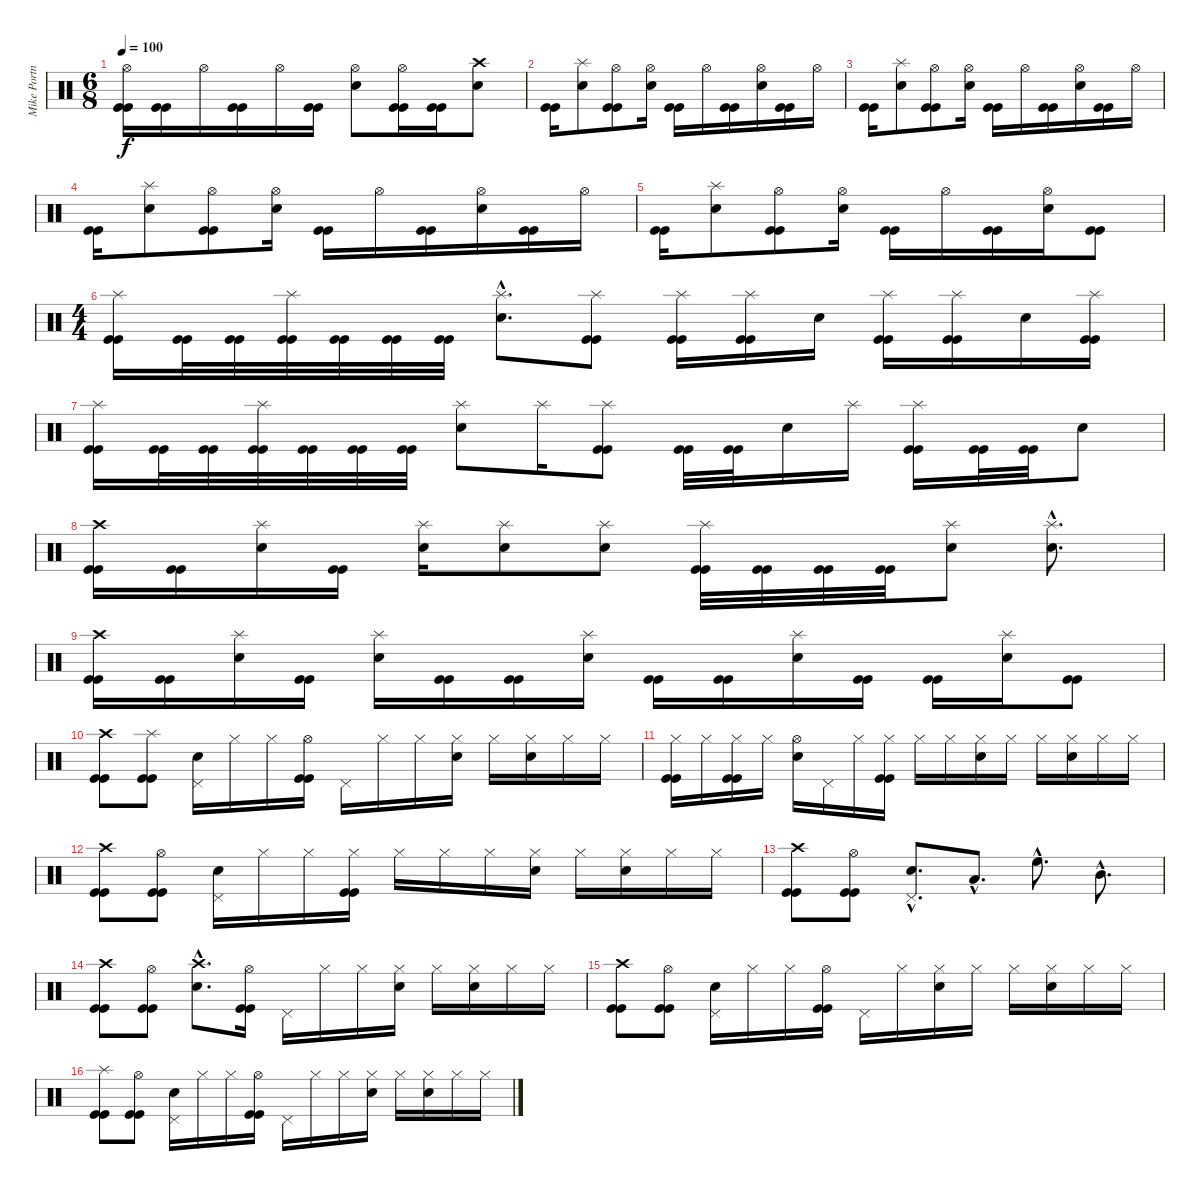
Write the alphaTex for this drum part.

\track ("Mike Portnoy - Drum" "Mike Portn") {instrument percussion}
\staff {score}
\articulation defaults
\ts (6 8)
\tempo 100
\clef neutral
\ks c
("Hi-Hat (open)" "Kick (hit)" "Kick (hit)").16{dy f} ("Kick (hit)" "Kick (hit)").16 "Hi-Hat (open)".16 ("Kick (hit)" "Kick (hit)").16 "Hi-Hat (open)".16 ("Kick (hit)" "Kick (hit)").16 ("Hi-Hat (open)" "Snare (hit) 2").8 ("Hi-Hat (open)" "Kick (hit)" "Kick (hit)").16 ("Kick (hit)" "Kick (hit)").16 ("Crash high (hit)" "Snare (hit) 2").8 |
("Kick (hit)" "Kick (hit)").16 ("Splash (hit)" "Snare (hit) 2").8 ("Hi-Hat (open)" "Kick (hit)" "Kick (hit)").8 ("Hi-Hat (open)" "Snare (hit) 2").16 ("Kick (hit)" "Kick (hit)").16 "Hi-Hat (open)".16 ("Kick (hit)" "Kick (hit)").16 ("Hi-Hat (open)" "Snare (hit) 2").16 ("Kick (hit)" "Kick (hit)").16 "Hi-Hat (open)".16 |
("Kick (hit)" "Kick (hit)").16 ("Splash (hit)" "Snare (hit) 2").8 ("Hi-Hat (open)" "Kick (hit)" "Kick (hit)").8 ("Hi-Hat (open)" "Snare (hit) 2").16 ("Kick (hit)" "Kick (hit)").16 "Hi-Hat (open)".16 ("Kick (hit)" "Kick (hit)").16 ("Hi-Hat (open)" "Snare (hit) 2").16 ("Kick (hit)" "Kick (hit)").16 "Hi-Hat (open)".16 |
("Kick (hit)" "Kick (hit)").16 ("Splash (hit)" "Snare (hit) 2").8 ("Hi-Hat (open)" "Kick (hit)" "Kick (hit)").8 ("Hi-Hat (open)" "Snare (hit) 2").16 ("Kick (hit)" "Kick (hit)").16 "Hi-Hat (open)".16 ("Kick (hit)" "Kick (hit)").16 ("Hi-Hat (open)" "Snare (hit) 2").16 ("Kick (hit)" "Kick (hit)").16 "Hi-Hat (open)".16 |
("Kick (hit)" "Kick (hit)").16 ("Splash (hit)" "Snare (hit) 2").8 ("Hi-Hat (open)" "Kick (hit)" "Kick (hit)").8 ("Hi-Hat (open)" "Snare (hit) 2").16 ("Kick (hit)" "Kick (hit)").16 "Hi-Hat (open)".16 ("Kick (hit)" "Kick (hit)").16 ("Hi-Hat (open)" "Snare (hit) 2").16 ("Kick (hit)" "Kick (hit)").8 |
\ts (4 4)
("Splash (hit)" "Kick (hit)" "Kick (hit)").16 ("Kick (hit)" "Kick (hit)").32 ("Kick (hit)" "Kick (hit)").32 ("Splash (hit)" "Kick (hit)" "Kick (hit)").32 ("Kick (hit)" "Kick (hit)").32 ("Kick (hit)" "Kick (hit)").32 ("Kick (hit)" "Kick (hit)").32 ("Splash (hit)"{hac} "Snare (hit) 2"{hac}).8{d} ("Splash (hit)" "Kick (hit)" "Kick (hit)").8 ("Splash (hit)" "Kick (hit)" "Kick (hit)").16 ("Splash (hit)" "Kick (hit)" "Kick (hit)").16 "Snare (hit) 2".16 ("Splash (hit)" "Kick (hit)" "Kick (hit)").16 ("Splash (hit)" "Kick (hit)" "Kick (hit)").16 "Snare (hit) 2".16 ("Splash (hit)" "Kick (hit)" "Kick (hit)").16 |
("Splash (hit)" "Kick (hit)" "Kick (hit)").16 ("Kick (hit)" "Kick (hit)").32 ("Kick (hit)" "Kick (hit)").32 ("Splash (hit)" "Kick (hit)" "Kick (hit)").32 ("Kick (hit)" "Kick (hit)").32 ("Kick (hit)" "Kick (hit)").32 ("Kick (hit)" "Kick (hit)").32 ("Splash (hit)" "Snare (hit) 2").8 "Splash (hit)".16 ("Splash (hit)" "Kick (hit)" "Kick (hit)").8 ("Kick (hit)" "Kick (hit)").32 ("Kick (hit)" "Kick (hit)").32 "Snare (hit) 2".16 "Splash (hit)".16 ("Splash (hit)" "Kick (hit)" "Kick (hit)").16 ("Kick (hit)" "Kick (hit)").32 ("Kick (hit)" "Kick (hit)").32 "Snare (hit) 2".8 |
("Crash high (hit)" "Kick (hit)" "Kick (hit)").16 ("Kick (hit)" "Kick (hit)").16 ("Splash (hit)" "Snare (hit) 2").16 ("Kick (hit)" "Kick (hit)").16 ("Splash (hit)" "Snare (hit) 2").16 ("Splash (hit)" "Snare (hit) 2").8 ("Splash (hit)" "Snare (hit) 2").8 ("Splash (hit)" "Kick (hit)" "Kick (hit)").32 ("Kick (hit)" "Kick (hit)").32 ("Kick (hit)" "Kick (hit)").32 ("Kick (hit)" "Kick (hit)").32 ("Splash (hit)" "Snare (hit) 2").8 ("Splash (hit)"{hac} "Snare (hit) 2"{hac}).8{d} |
("Crash high (hit)" "Kick (hit)" "Kick (hit)").16 ("Kick (hit)" "Kick (hit)").16 ("Splash (hit)" "Snare (hit) 2").16 ("Kick (hit)" "Kick (hit)").16 ("Splash (hit)" "Snare (hit) 2").16 ("Kick (hit)" "Kick (hit)").16 ("Kick (hit)" "Kick (hit)").16 ("Splash (hit)" "Snare (hit) 2").16 ("Kick (hit)" "Kick (hit)").16 ("Kick (hit)" "Kick (hit)").16 ("Splash (hit)" "Snare (hit) 2").16 ("Kick (hit)" "Kick (hit)").16 ("Kick (hit)" "Kick (hit)").16 ("Splash (hit)" "Snare (hit) 2").16 ("Kick (hit)" "Kick (hit)").8 |
("Crash high (hit)" "Kick (hit)" "Kick (hit)").8 ("Splash (hit)" "Kick (hit)" "Kick (hit)").8 ("Pedal Hi-Hat (hit)" "Snare (hit) 2").16 "Hi-Hat (closed)".16 "Hi-Hat (closed)".16 ("Hi-Hat (open)" "Kick (hit)" "Kick (hit)").16 "Pedal Hi-Hat (hit)".16 "Hi-Hat (closed)".16 "Hi-Hat (closed)".16 ("Hi-Hat (closed)" "Snare (hit) 2").16 "Hi-Hat (closed)".16 ("Hi-Hat (closed)" "Snare (hit) 2").16 "Hi-Hat (closed)".16 "Hi-Hat (closed)".16 |
("Hi-Hat (closed)" "Kick (hit)" "Kick (hit)").16 "Hi-Hat (closed)".16 ("Hi-Hat (closed)" "Kick (hit)" "Kick (hit)").16 "Hi-Hat (closed)".16 ("Hi-Hat (open)" "Snare (hit) 2").16 "Pedal Hi-Hat (hit)".16 "Hi-Hat (closed)".16 ("Hi-Hat (closed)" "Kick (hit)" "Kick (hit)").16 "Hi-Hat (closed)".16 "Hi-Hat (closed)".16 ("Hi-Hat (closed)" "Snare (hit) 2").16 "Hi-Hat (closed)".16 "Hi-Hat (closed)".16 ("Hi-Hat (closed)" "Snare (hit) 2").16 "Hi-Hat (closed)".16 "Hi-Hat (closed)".16 |
("Crash high (hit)" "Kick (hit)" "Kick (hit)").8 ("Hi-Hat (open)" "Kick (hit)" "Kick (hit)").8 ("Pedal Hi-Hat (hit)" "Snare (hit) 2").16 "Hi-Hat (closed)".16 "Hi-Hat (closed)".16 ("Hi-Hat (closed)" "Kick (hit)" "Kick (hit)").16 "Hi-Hat (closed)".16 "Hi-Hat (closed)".16 "Hi-Hat (closed)".16 ("Hi-Hat (closed)" "Snare (hit) 2").16 "Hi-Hat (closed)".16 ("Hi-Hat (closed)" "Snare (hit) 2").16 "Hi-Hat (closed)".16 "Hi-Hat (closed)".16 |
("Crash high (hit)" "Kick (hit)" "Kick (hit)").8 ("Hi-Hat (open)" "Kick (hit)" "Kick (hit)").8 ("Pedal Hi-Hat (hit)"{hac} "Snare (hit) 2"{hac}).8{d} "Low Tom (hit)"{hac}.8{d} "High Floor Tom (hit)"{hac}.8{d} "Mid Tom (hit)"{hac}.8{d} |
("Crash high (hit)" "Kick (hit)" "Kick (hit)").8 ("Hi-Hat (open)" "Kick (hit)" "Kick (hit)").8 ("Crash high (hit)"{hac} "Snare (hit) 2"{hac}).8{d} ("Hi-Hat (open)" "Kick (hit)" "Kick (hit)").16 "Pedal Hi-Hat (hit)".16 "Hi-Hat (closed)".16 "Hi-Hat (closed)".16 ("Hi-Hat (closed)" "Snare (hit) 2").16 "Hi-Hat (closed)".16 ("Hi-Hat (closed)" "Snare (hit) 2").16 "Hi-Hat (closed)".16 "Hi-Hat (closed)".16 |
("Crash high (hit)" "Kick (hit)" "Kick (hit)").8 ("Hi-Hat (open)" "Kick (hit)" "Kick (hit)").8 ("Pedal Hi-Hat (hit)" "Snare (hit) 2").16 "Hi-Hat (closed)".16 "Hi-Hat (closed)".16 ("Hi-Hat (open)" "Kick (hit)" "Kick (hit)").16 "Pedal Hi-Hat (hit)".16 "Hi-Hat (closed)".16 ("Hi-Hat (closed)" "Snare (hit) 2").16 "Hi-Hat (closed)".16 "Hi-Hat (closed)".16 ("Hi-Hat (closed)" "Snare (hit) 2").16 "Hi-Hat (closed)".16 "Hi-Hat (closed)".16 |
("Splash (hit)" "Kick (hit)" "Kick (hit)").8 ("Hi-Hat (open)" "Kick (hit)" "Kick (hit)").8 ("Pedal Hi-Hat (hit)" "Snare (hit) 2").16 "Hi-Hat (closed)".16 "Hi-Hat (closed)".16 ("Hi-Hat (open)" "Kick (hit)" "Kick (hit)").16 "Pedal Hi-Hat (hit)".16 "Hi-Hat (closed)".16 "Hi-Hat (closed)".16 ("Hi-Hat (closed)" "Snare (hit) 2").16 "Hi-Hat (closed)".16 ("Hi-Hat (closed)" "Snare (hit) 2").16 "Hi-Hat (closed)".16 "Hi-Hat (closed)".16
